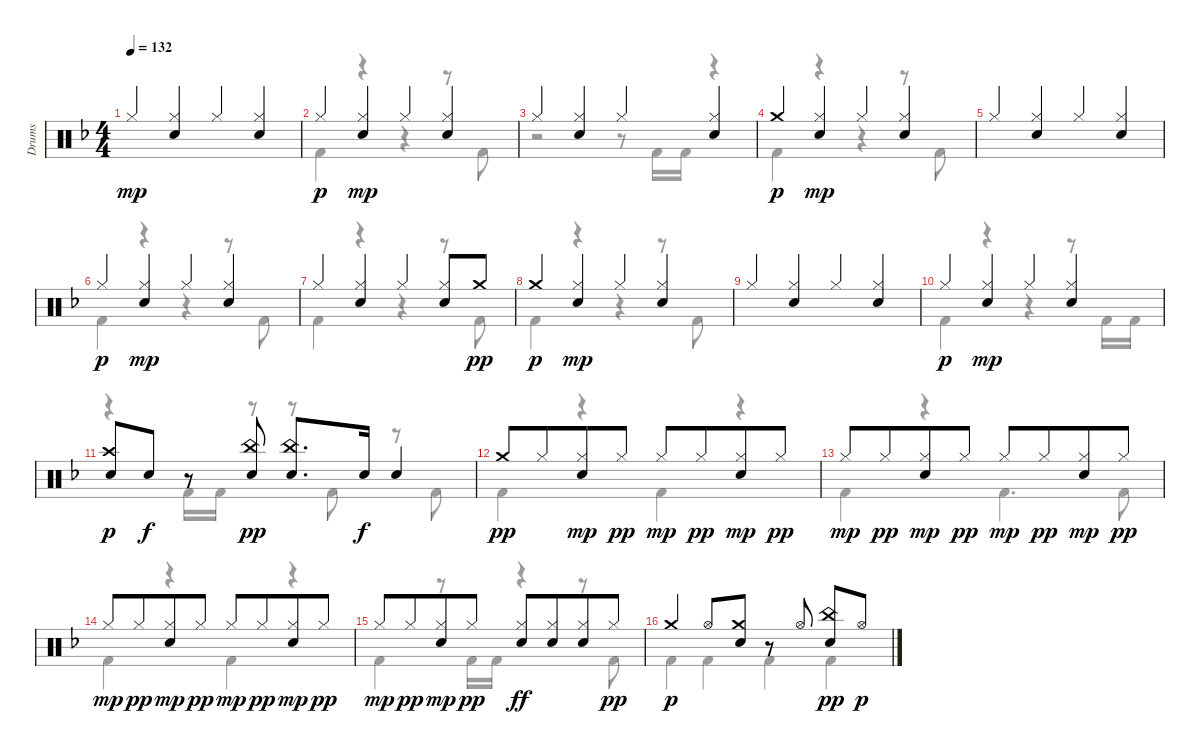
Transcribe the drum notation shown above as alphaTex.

\track ("Drums" "Drums") {instrument percussion}
\staff {score}
\articulation defaults
\voice
\ts (4 4)
\tempo 132
\clef neutral
\ks f "Hi-Hat (closed)".4{dy mp beam Up}
("Hi-Hat (closed)" "Electric Snare (hit)").4{beam Up} "Hi-Hat (closed)".4{beam Up} ("Hi-Hat (closed)" "Electric Snare (hit)").4{beam Up} |
"Hi-Hat (closed)".4{dy p} ("Hi-Hat (closed)" "Electric Snare (hit)").4{dy mp} "Hi-Hat (closed)".4 ("Hi-Hat (closed)" "Electric Snare (hit)").4 |
"Hi-Hat (closed)".4 ("Hi-Hat (closed)" "Electric Snare (hit)").4 "Hi-Hat (closed)".4 ("Hi-Hat (closed)" "Electric Snare (hit)").4 |
"Crash medium (hit)".4{dy p} ("Hi-Hat (closed)" "Electric Snare (hit)").4{dy mp} "Hi-Hat (closed)".4 ("Hi-Hat (closed)" "Electric Snare (hit)").4 |
"Hi-Hat (closed)".4{beam Up} ("Hi-Hat (closed)" "Electric Snare (hit)").4{beam Up} "Hi-Hat (closed)".4{beam Up} ("Hi-Hat (closed)" "Electric Snare (hit)").4{beam Up} |
"Hi-Hat (closed)".4{dy p} ("Hi-Hat (closed)" "Electric Snare (hit)").4{dy mp} "Hi-Hat (closed)".4 ("Hi-Hat (closed)" "Electric Snare (hit)").4 |
"Hi-Hat (closed)".4 ("Hi-Hat (closed)" "Electric Snare (hit)").4 "Hi-Hat (closed)".4 ("Hi-Hat (closed)" "Electric Snare (hit)").8 "Crash medium (hit)".8{dy pp} |
"Crash medium (hit)".4{dy p} ("Hi-Hat (closed)" "Electric Snare (hit)").4{dy mp} "Hi-Hat (closed)".4 ("Hi-Hat (closed)" "Electric Snare (hit)").4 |
"Hi-Hat (closed)".4{beam Up} ("Hi-Hat (closed)" "Electric Snare (hit)").4{beam Up} "Hi-Hat (closed)".4{beam Up} ("Hi-Hat (closed)" "Electric Snare (hit)").4{beam Up} |
"Hi-Hat (closed)".4{dy p} ("Hi-Hat (closed)" "Electric Snare (hit)").4{dy mp} "Hi-Hat (closed)".4 ("Hi-Hat (closed)" "Electric Snare (hit)").4 |
("Electric Snare (hit)" "Crash high (hit)").8{dy p} "Electric Snare (hit)".8{dy f} r.8 ("Electric Snare (hit)" "China (hit)").8{dy pp} ("Electric Snare (hit)" "China (hit)").8{d} "Electric Snare (hit)".16{dy f} "Electric Snare (hit)".4 |
"Crash medium (hit)".8{dy pp} "Hi-Hat (closed)".8{beam merge} ("Hi-Hat (closed)" "Electric Snare (hit)").8{dy mp} "Hi-Hat (closed)".8{dy pp} "Hi-Hat (closed)".8{dy mp} "Hi-Hat (closed)".8{dy pp beam merge} ("Hi-Hat (closed)" "Electric Snare (hit)").8{dy mp} "Hi-Hat (closed)".8{dy pp} |
"Hi-Hat (closed)".8{dy mp} "Hi-Hat (closed)".8{dy pp beam merge} ("Hi-Hat (closed)" "Electric Snare (hit)").8{dy mp} "Hi-Hat (closed)".8{dy pp} "Hi-Hat (closed)".8{dy mp} "Hi-Hat (closed)".8{dy pp beam merge} ("Hi-Hat (closed)" "Electric Snare (hit)").8{dy mp} "Hi-Hat (closed)".8{dy pp} |
"Hi-Hat (closed)".8{dy mp} "Hi-Hat (closed)".8{dy pp beam merge} ("Hi-Hat (closed)" "Electric Snare (hit)").8{dy mp} "Hi-Hat (closed)".8{dy pp} "Hi-Hat (closed)".8{dy mp} "Hi-Hat (closed)".8{dy pp beam merge} ("Hi-Hat (closed)" "Electric Snare (hit)").8{dy mp} "Hi-Hat (closed)".8{dy pp} |
"Hi-Hat (closed)".8{dy mp} "Hi-Hat (closed)".8{dy pp beam merge} ("Hi-Hat (closed)" "Electric Snare (hit)").8{dy mp} "Hi-Hat (closed)".8{dy pp} ("Hi-Hat (closed)" "Electric Snare (hit)").8{dy ff} ("Hi-Hat (closed)" "Electric Snare (hit)").8{beam merge} ("Hi-Hat (closed)" "Electric Snare (hit)").8 "Hi-Hat (closed)".8{dy pp} |
"Crash medium (hit)".4{dy p} "Hi-Hat (open)".8 ("Electric Snare (hit)" "Crash medium (hit)").8 r.8 "Hi-Hat (open)".8 ("Electric Snare (hit)" "China (hit)").8{dy pp} "Hi-Hat (open)".8{dy p}
\voice
\clef neutral
\ottava regular
\simile none
\ks f
|
"Kick (hit) 2".4 r.4 r.4 r.8 "Kick (hit) 2".8 |
r.2 r.8 "Kick (hit) 2".16 "Kick (hit) 2".16 r.4 |
"Kick (hit) 2".4 r.4 r.4 r.8 "Kick (hit) 2".8 |
|
"Kick (hit) 2".4 r.4 r.4 r.8 "Kick (hit) 2".8 |
"Kick (hit) 2".4 r.4 r.4 r.8 "Kick (hit) 2".8 |
"Kick (hit) 2".4 r.4 r.4 r.8 "Kick (hit) 2".8 |
|
"Kick (hit) 2".4 r.4 r.4 r.8 "Kick (hit) 2".16 "Kick (hit) 2".16 |
r.4 "Kick (hit) 2".16 "Kick (hit) 2".16 r.8 r.8 "Kick (hit) 2".8 r.8 "Kick (hit) 2".8 |
"Kick (hit) 2".4 r.4 "Kick (hit) 2".4 r.4 |
"Kick (hit) 2".4 r.4 "Kick (hit) 2".4{d} "Kick (hit) 2".8 |
"Kick (hit) 2".4 r.4 "Kick (hit) 2".4 r.4 |
"Kick (hit) 2".4 r.8 "Kick (hit) 2".16 "Kick (hit) 2".16 r.4 r.8 "Kick (hit) 2".8 |
"Kick (hit) 2".4 "Kick (hit) 2".4 "Kick (hit) 2".4 "Kick (hit) 2".4
